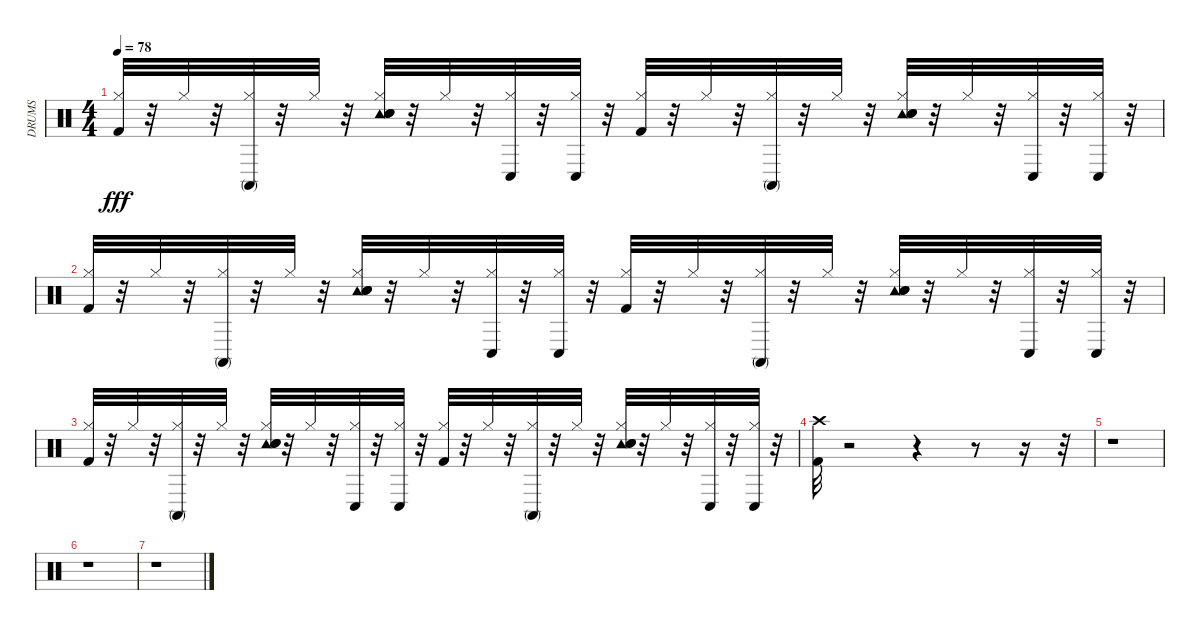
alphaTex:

\track ("DRUMS" "DRUMS") {instrument percussion}
\staff {score}
\articulation defaults
\ts (4 4)
\tempo 78
\clef neutral
\ks c
("Hi-Hat (closed)" "Kick (hit) 2").32{dy fff} r.32 "Hi-Hat (closed)".32 r.32 ("Conga high (mute)" "Hi-Hat (closed)").32 r.32 "Hi-Hat (closed)".32 r.32 ("Hi-Hat (closed)" "Tambourine (hit)" "Snare (hit)" "Snare (hit) 2").32 r.32 "Hi-Hat (closed)".32 r.32 ("Conga low (hit)" "Hi-Hat (closed)").32 r.32 ("Conga low (hit)" "Hi-Hat (closed)").32 r.32 ("Hi-Hat (closed)" "Kick (hit) 2").32 r.32 "Hi-Hat (closed)".32 r.32 ("Conga high (mute)" "Hi-Hat (closed)").32 r.32 "Hi-Hat (closed)".32 r.32 ("Hi-Hat (closed)" "Tambourine (hit)" "Snare (hit) 2" "Snare (hit)").32 r.32 "Hi-Hat (closed)".32 r.32 ("Conga low (hit)" "Hi-Hat (closed)").32 r.32 ("Conga low (hit)" "Hi-Hat (closed)").32 r.32 |
("Hi-Hat (closed)" "Kick (hit) 2").32 r.32 "Hi-Hat (closed)".32 r.32 ("Conga high (mute)" "Hi-Hat (closed)").32 r.32 "Hi-Hat (closed)".32 r.32 ("Hi-Hat (closed)" "Tambourine (hit)" "Snare (hit)" "Snare (hit) 2").32 r.32 "Hi-Hat (closed)".32 r.32 ("Conga low (hit)" "Hi-Hat (closed)").32 r.32 ("Conga low (hit)" "Hi-Hat (closed)").32 r.32 ("Hi-Hat (closed)" "Kick (hit) 2").32 r.32 "Hi-Hat (closed)".32 r.32 ("Conga high (mute)" "Hi-Hat (closed)").32 r.32 "Hi-Hat (closed)".32 r.32 ("Hi-Hat (closed)" "Tambourine (hit)" "Snare (hit) 2" "Snare (hit)").32 r.32 "Hi-Hat (closed)".32 r.32 ("Conga low (hit)" "Hi-Hat (closed)").32 r.32 ("Conga low (hit)" "Hi-Hat (closed)").32 r.32 |
("Hi-Hat (closed)" "Kick (hit) 2").32 r.32 "Hi-Hat (closed)".32 r.32 ("Conga high (mute)" "Hi-Hat (closed)").32 r.32 "Hi-Hat (closed)".32 r.32 ("Hi-Hat (closed)" "Tambourine (hit)" "Snare (hit)" "Snare (hit) 2").32 r.32 "Hi-Hat (closed)".32 r.32 ("Conga low (hit)" "Hi-Hat (closed)").32 r.32 ("Conga low (hit)" "Hi-Hat (closed)").32 r.32 ("Hi-Hat (closed)" "Kick (hit) 2").32 r.32 "Hi-Hat (closed)".32 r.32 ("Conga high (mute)" "Hi-Hat (closed)").32 r.32 "Hi-Hat (closed)".32 r.32 ("Hi-Hat (closed)" "Tambourine (hit)" "Snare (hit) 2" "Snare (hit)").32 r.32 "Hi-Hat (closed)".32 r.32 ("Conga low (hit)" "Hi-Hat (closed)").32 r.32 ("Conga low (hit)" "Hi-Hat (closed)").32 r.32 |
("Crash high (hit)" "Kick (hit) 2").32 r.2 r.4 r.8 r.16 r.32 |
r.1 |
r.1 |
r.1
